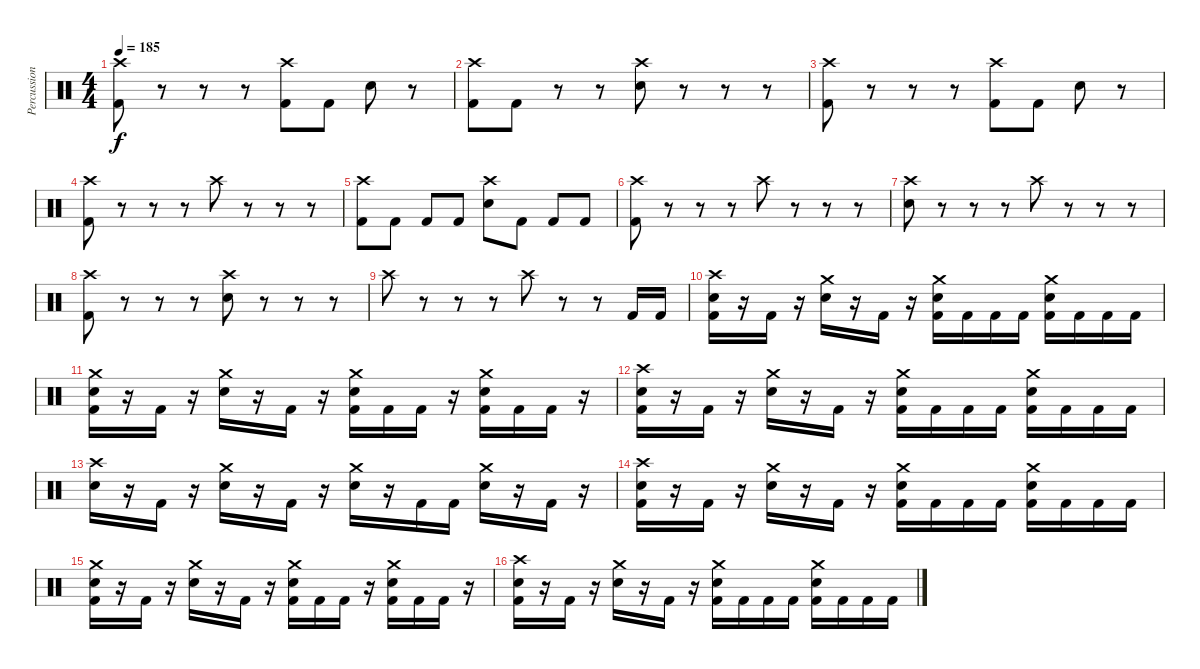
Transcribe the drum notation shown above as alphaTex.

\track ("Percussion" "Percussion") {instrument percussion}
\staff {score}
\articulation defaults
\ts (4 4)
\tempo 185
\clef neutral
\ks c
("Crash high (hit)" "Kick (hit) 2").8{dy f} r.8 r.8 r.8 ("Crash high (hit)" "Kick (hit) 2").8 "Kick (hit) 2".8 "Snare (hit) 2".8 r.8 |
("Crash high (hit)" "Kick (hit) 2").8 "Kick (hit) 2".8 r.8 r.8 ("Crash high (hit)" "Snare (hit) 2").8 r.8 r.8 r.8 |
("Crash high (hit)" "Kick (hit) 2").8 r.8 r.8 r.8 ("Crash high (hit)" "Kick (hit) 2").8 "Kick (hit) 2".8 "Snare (hit) 2".8 r.8 |
("Crash high (hit)" "Kick (hit) 2").8 r.8 r.8 r.8 "Crash high (hit)".8 r.8 r.8 r.8 |
("Crash high (hit)" "Kick (hit) 2").8 "Kick (hit) 2".8 "Kick (hit) 2".8 "Kick (hit) 2".8 ("Crash high (hit)" "Snare (hit) 2").8 "Kick (hit) 2".8 "Kick (hit) 2".8 "Kick (hit) 2".8 |
("Crash high (hit)" "Kick (hit) 2").8 r.8 r.8 r.8 "Crash high (hit)".8 r.8 r.8 r.8 |
("Crash high (hit)" "Snare (hit) 2").8 r.8 r.8 r.8 "Crash high (hit)".8 r.8 r.8 r.8 |
("Crash high (hit)" "Kick (hit) 2").8 r.8 r.8 r.8 ("Crash high (hit)" "Snare (hit) 2").8 r.8 r.8 r.8 |
"Crash high (hit)".8 r.8 r.8 r.8 "Crash high (hit)".8 r.8 r.8 "Kick (hit) 2".16 "Kick (hit) 2".16 |
("Crash high (hit)" "Snare (hit) 2" "Kick (hit) 2").16 r.16 "Kick (hit) 2".16 r.16 ("Crash medium (hit)" "Snare (hit) 2").16 r.16 "Kick (hit) 2".16 r.16 ("Crash medium (hit)" "Snare (hit) 2" "Kick (hit) 2").16 "Kick (hit) 2".16 "Kick (hit) 2".16 "Kick (hit) 2".16 ("Crash medium (hit)" "Snare (hit) 2" "Kick (hit) 2").16 "Kick (hit) 2".16 "Kick (hit) 2".16 "Kick (hit) 2".16 |
("Crash medium (hit)" "Snare (hit) 2" "Kick (hit) 2").16 r.16 "Kick (hit) 2".16 r.16 ("Crash medium (hit)" "Snare (hit) 2").16 r.16 "Kick (hit) 2".16 r.16 ("Crash medium (hit)" "Snare (hit) 2" "Kick (hit) 2").16 "Kick (hit) 2".16 "Kick (hit) 2".16 r.16 ("Crash medium (hit)" "Snare (hit) 2" "Kick (hit) 2").16 "Kick (hit) 2".16 "Kick (hit) 2".16 r.16 |
("Crash high (hit)" "Snare (hit) 2" "Kick (hit) 2").16 r.16 "Kick (hit) 2".16 r.16 ("Crash medium (hit)" "Snare (hit) 2").16 r.16 "Kick (hit) 2".16 r.16 ("Crash medium (hit)" "Snare (hit) 2" "Kick (hit) 2").16 "Kick (hit) 2".16 "Kick (hit) 2".16 "Kick (hit) 2".16 ("Crash medium (hit)" "Snare (hit) 2" "Kick (hit) 2").16 "Kick (hit) 2".16 "Kick (hit) 2".16 "Kick (hit) 2".16 |
("Crash high (hit)" "Snare (hit) 2").16 r.16 "Kick (hit) 2".16 r.16 ("Crash medium (hit)" "Snare (hit) 2").16 r.16 "Kick (hit) 2".16 r.16 ("Crash medium (hit)" "Snare (hit) 2").16 r.16 "Kick (hit) 2".16 "Kick (hit) 2".16 ("Crash medium (hit)" "Snare (hit) 2").16 r.16 "Kick (hit) 2".16 r.16 |
("Crash high (hit)" "Snare (hit) 2" "Kick (hit) 2").16 r.16 "Kick (hit) 2".16 r.16 ("Crash medium (hit)" "Snare (hit) 2").16 r.16 "Kick (hit) 2".16 r.16 ("Crash medium (hit)" "Snare (hit) 2" "Kick (hit) 2").16 "Kick (hit) 2".16 "Kick (hit) 2".16 "Kick (hit) 2".16 ("Crash medium (hit)" "Snare (hit) 2" "Kick (hit) 2").16 "Kick (hit) 2".16 "Kick (hit) 2".16 "Kick (hit) 2".16 |
("Crash medium (hit)" "Snare (hit) 2" "Kick (hit) 2").16 r.16 "Kick (hit) 2".16 r.16 ("Crash medium (hit)" "Snare (hit) 2").16 r.16 "Kick (hit) 2".16 r.16 ("Crash medium (hit)" "Snare (hit) 2" "Kick (hit) 2").16 "Kick (hit) 2".16 "Kick (hit) 2".16 r.16 ("Crash medium (hit)" "Snare (hit) 2" "Kick (hit) 2").16 "Kick (hit) 2".16 "Kick (hit) 2".16 r.16 |
("Crash high (hit)" "Snare (hit) 2" "Kick (hit) 2").16 r.16 "Kick (hit) 2".16 r.16 ("Crash medium (hit)" "Snare (hit) 2").16 r.16 "Kick (hit) 2".16 r.16 ("Crash medium (hit)" "Snare (hit) 2" "Kick (hit) 2").16 "Kick (hit) 2".16 "Kick (hit) 2".16 "Kick (hit) 2".16 ("Crash medium (hit)" "Snare (hit) 2" "Kick (hit) 2").16 "Kick (hit) 2".16 "Kick (hit) 2".16 "Kick (hit) 2".16
